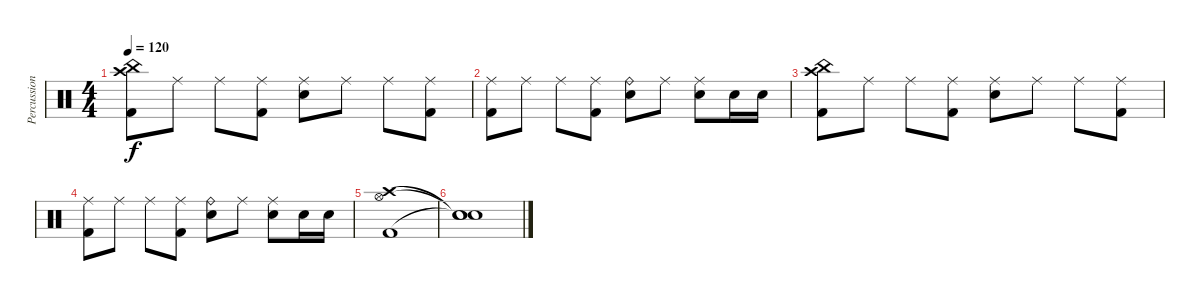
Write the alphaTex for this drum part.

\track ("Percussion" "Percussion") {instrument percussion}
\staff {score}
\articulation defaults
\ts (4 4)
\tempo 120
\clef neutral
\ks c
("China (hit)" "Crash high (hit)" "Kick (hit) 2").8{dy f} "Ride (middle)".8 "Ride (middle)".8 ("Ride (middle)" "Kick (hit) 2").8 ("Ride (middle)" "Electric Snare (hit)").8 "Ride (middle)".8 "Ride (middle)".8 ("Ride (middle)" "Kick (hit) 2").8 |
("Ride (middle)" "Kick (hit) 2").8 "Ride (middle)".8 "Ride (middle)".8 ("Ride (middle)" "Kick (hit) 2").8 ("Ride (bell)" "Electric Snare (hit)").8 "Ride (middle)".8 ("Ride (middle)" "Electric Snare (hit)").8 "Electric Snare (hit)".16 "Electric Snare (hit)".16 |
("China (hit)" "Crash high (hit)" "Kick (hit) 2").8 "Ride (middle)".8 "Ride (middle)".8 ("Ride (middle)" "Kick (hit) 2").8 ("Ride (middle)" "Electric Snare (hit)").8 "Ride (middle)".8 "Ride (middle)".8 ("Ride (middle)" "Kick (hit) 2").8 |
("Ride (middle)" "Kick (hit) 2").8 "Ride (middle)".8 "Ride (middle)".8 ("Ride (middle)" "Kick (hit) 2").8 ("Ride (bell)" "Electric Snare (hit)").8 "Ride (middle)".8 ("Ride (middle)" "Electric Snare (hit)").8 "Electric Snare (hit)".16 "Electric Snare (hit)".16 |
("Hi-Hat (open)" "Crash high (hit)" "Kick (hit) 2").1 |
("Snare (hit)"{t} "Snare (hit)"{t} "Snare (hit)"{t}).1
